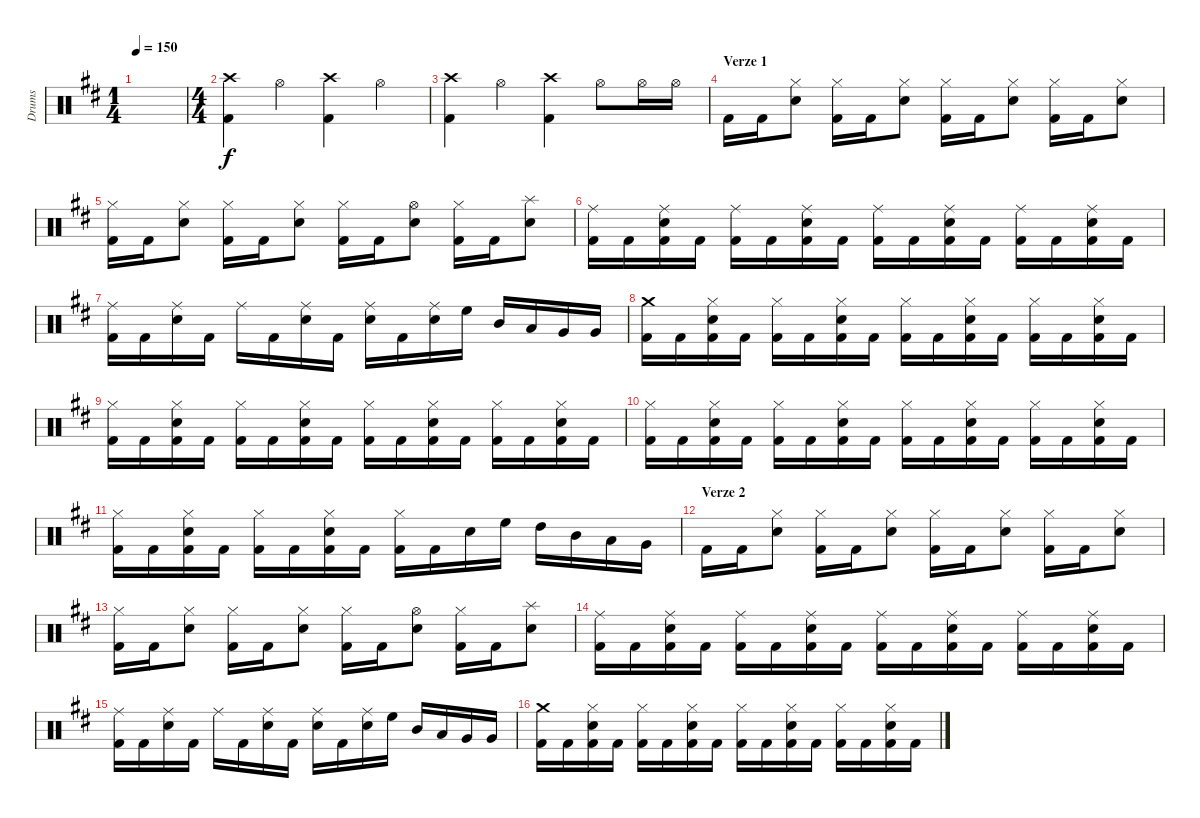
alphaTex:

\track ("Drums" "Drums") {instrument percussion}
\staff {score}
\articulation defaults
\ts (1 4)
\tempo 150
\clef neutral
\ks bminor
|
\ts (4 4)
\ks d
("Crash high (hit)" "Kick (hit) 2").4 "Hi-Hat (open)".4 ("Crash high (hit)" "Kick (hit) 2").4 "Hi-Hat (open)".4 |
("Crash high (hit)" "Kick (hit) 2").4 "Hi-Hat (open)".4 ("Crash high (hit)" "Kick (hit) 2").4 "Hi-Hat (open)".8 "Hi-Hat (open)".16 "Hi-Hat (open)".16 |
\section ("" "Verze 1")
"Kick (hit) 2".16 "Kick (hit) 2".16 ("Hi-Hat (closed)" "Snare (hit) 2").8 ("Hi-Hat (closed)" "Kick (hit) 2").16 "Kick (hit) 2".16 ("Hi-Hat (closed)" "Snare (hit) 2").8 ("Hi-Hat (closed)" "Kick (hit) 2").16 "Kick (hit) 2".16 ("Hi-Hat (closed)" "Snare (hit) 2").8 ("Hi-Hat (closed)" "Kick (hit) 2").16 "Kick (hit) 2".16 ("Hi-Hat (closed)" "Snare (hit) 2").8 |
("Hi-Hat (closed)" "Kick (hit) 2").16 "Kick (hit) 2".16 ("Hi-Hat (closed)" "Snare (hit) 2").8 ("Hi-Hat (closed)" "Kick (hit) 2").16 "Kick (hit) 2".16 ("Hi-Hat (closed)" "Snare (hit) 2").8 ("Hi-Hat (closed)" "Kick (hit) 2").16 "Kick (hit) 2".16 ("Hi-Hat (open)" "Snare (hit) 2").8 ("Hi-Hat (closed)" "Kick (hit) 2").16 "Kick (hit) 2".16 ("Splash (hit)" "Snare (hit) 2").8 |
("Ride (middle)" "Kick (hit) 2").16 "Kick (hit) 2".16 ("Ride (middle)" "Snare (hit) 2" "Kick (hit) 2").16 "Kick (hit) 2".16 ("Ride (middle)" "Kick (hit) 2").16 "Kick (hit) 2".16 ("Ride (middle)" "Snare (hit) 2" "Kick (hit) 2").16 "Kick (hit) 2".16 ("Ride (middle)" "Kick (hit) 2").16 "Kick (hit) 2".16 ("Ride (middle)" "Snare (hit) 2" "Kick (hit) 2").16 "Kick (hit) 2".16 ("Ride (middle)" "Kick (hit) 2").16 "Kick (hit) 2".16 ("Ride (middle)" "Snare (hit) 2" "Kick (hit) 2").16 "Kick (hit) 2".16 |
("Ride (middle)" "Kick (hit) 2").16 "Kick (hit) 2".16 ("Ride (middle)" "Snare (hit) 2").16 "Kick (hit) 2".16 "Ride (middle)".16 "Kick (hit) 2".16 ("Ride (middle)" "Snare (hit) 2").16 "Kick (hit) 2".16 ("Ride (middle)" "Snare (hit) 2").16 "Kick (hit) 2".16 ("Ride (middle)" "Snare (hit) 2").16 "High Floor Tom (hit)".16 "Mid Tom (hit)".16 "Low Tom (hit)".16 "Very Low Tom (hit)".16 "Very Low Tom (hit)".16 |
("Crash medium (hit)" "Kick (hit) 2").16 "Kick (hit) 2".16 ("Hi-Hat (closed)" "Snare (hit) 2" "Kick (hit) 2").16 "Kick (hit) 2".16 ("Hi-Hat (closed)" "Kick (hit) 2").16 "Kick (hit) 2".16 ("Hi-Hat (closed)" "Snare (hit) 2" "Kick (hit) 2").16 "Kick (hit) 2".16 ("Hi-Hat (closed)" "Kick (hit) 2").16 "Kick (hit) 2".16 ("Hi-Hat (closed)" "Snare (hit) 2" "Kick (hit) 2").16 "Kick (hit) 2".16 ("Hi-Hat (closed)" "Kick (hit) 2").16 "Kick (hit) 2".16 ("Hi-Hat (closed)" "Snare (hit) 2" "Kick (hit) 2").16 "Kick (hit) 2".16 |
("Hi-Hat (closed)" "Kick (hit) 2").16 "Kick (hit) 2".16 ("Hi-Hat (closed)" "Snare (hit) 2" "Kick (hit) 2").16 "Kick (hit) 2".16 ("Hi-Hat (closed)" "Kick (hit) 2").16 "Kick (hit) 2".16 ("Hi-Hat (closed)" "Snare (hit) 2" "Kick (hit) 2").16 "Kick (hit) 2".16 ("Hi-Hat (closed)" "Kick (hit) 2").16 "Kick (hit) 2".16 ("Hi-Hat (closed)" "Snare (hit) 2" "Kick (hit) 2").16 "Kick (hit) 2".16 ("Hi-Hat (closed)" "Kick (hit) 2").16 "Kick (hit) 2".16 ("Hi-Hat (closed)" "Snare (hit) 2" "Kick (hit) 2").16 "Kick (hit) 2".16 |
("Hi-Hat (closed)" "Kick (hit) 2").16 "Kick (hit) 2".16 ("Hi-Hat (closed)" "Snare (hit) 2" "Kick (hit) 2").16 "Kick (hit) 2".16 ("Hi-Hat (closed)" "Kick (hit) 2").16 "Kick (hit) 2".16 ("Hi-Hat (closed)" "Snare (hit) 2" "Kick (hit) 2").16 "Kick (hit) 2".16 ("Hi-Hat (closed)" "Kick (hit) 2").16 "Kick (hit) 2".16 ("Hi-Hat (closed)" "Snare (hit) 2" "Kick (hit) 2").16 "Kick (hit) 2".16 ("Hi-Hat (closed)" "Kick (hit) 2").16 "Kick (hit) 2".16 ("Hi-Hat (closed)" "Snare (hit) 2" "Kick (hit) 2").16 "Kick (hit) 2".16 |
("Hi-Hat (closed)" "Kick (hit) 2").16 "Kick (hit) 2".16 ("Hi-Hat (closed)" "Snare (hit) 2" "Kick (hit) 2").16 "Kick (hit) 2".16 ("Hi-Hat (closed)" "Kick (hit) 2").16 "Kick (hit) 2".16 ("Hi-Hat (closed)" "Snare (hit) 2" "Kick (hit) 2").16 "Kick (hit) 2".16 ("Hi-Hat (closed)" "Kick (hit) 2").16 "Kick (hit) 2".16 "Snare (hit) 2".16 "High Floor Tom (hit)".16 "High Tom (hit)".16 "Mid Tom (hit)".16 "Low Tom (hit)".16 "Very Low Tom (hit)".16 |
\section ("" "Verze 2")
"Kick (hit) 2".16 "Kick (hit) 2".16 ("Hi-Hat (closed)" "Snare (hit) 2").8 ("Hi-Hat (closed)" "Kick (hit) 2").16 "Kick (hit) 2".16 ("Hi-Hat (closed)" "Snare (hit) 2").8 ("Hi-Hat (closed)" "Kick (hit) 2").16 "Kick (hit) 2".16 ("Hi-Hat (closed)" "Snare (hit) 2").8 ("Hi-Hat (closed)" "Kick (hit) 2").16 "Kick (hit) 2".16 ("Hi-Hat (closed)" "Snare (hit) 2").8 |
("Hi-Hat (closed)" "Kick (hit) 2").16 "Kick (hit) 2".16 ("Hi-Hat (closed)" "Snare (hit) 2").8 ("Hi-Hat (closed)" "Kick (hit) 2").16 "Kick (hit) 2".16 ("Hi-Hat (closed)" "Snare (hit) 2").8 ("Hi-Hat (closed)" "Kick (hit) 2").16 "Kick (hit) 2".16 ("Hi-Hat (open)" "Snare (hit) 2").8 ("Hi-Hat (closed)" "Kick (hit) 2").16 "Kick (hit) 2".16 ("Splash (hit)" "Snare (hit) 2").8 |
("Ride (middle)" "Kick (hit) 2").16 "Kick (hit) 2".16 ("Ride (middle)" "Snare (hit) 2" "Kick (hit) 2").16 "Kick (hit) 2".16 ("Ride (middle)" "Kick (hit) 2").16 "Kick (hit) 2".16 ("Ride (middle)" "Snare (hit) 2" "Kick (hit) 2").16 "Kick (hit) 2".16 ("Ride (middle)" "Kick (hit) 2").16 "Kick (hit) 2".16 ("Ride (middle)" "Snare (hit) 2" "Kick (hit) 2").16 "Kick (hit) 2".16 ("Ride (middle)" "Kick (hit) 2").16 "Kick (hit) 2".16 ("Ride (middle)" "Snare (hit) 2" "Kick (hit) 2").16 "Kick (hit) 2".16 |
("Ride (middle)" "Kick (hit) 2").16 "Kick (hit) 2".16 ("Ride (middle)" "Snare (hit) 2").16 "Kick (hit) 2".16 "Ride (middle)".16 "Kick (hit) 2".16 ("Ride (middle)" "Snare (hit) 2").16 "Kick (hit) 2".16 ("Ride (middle)" "Snare (hit) 2").16 "Kick (hit) 2".16 ("Ride (middle)" "Snare (hit) 2").16 "High Floor Tom (hit)".16 "Mid Tom (hit)".16 "Low Tom (hit)".16 "Very Low Tom (hit)".16 "Very Low Tom (hit)".16 |
("Crash medium (hit)" "Kick (hit) 2").16 "Kick (hit) 2".16 ("Hi-Hat (closed)" "Snare (hit) 2" "Kick (hit) 2").16 "Kick (hit) 2".16 ("Hi-Hat (closed)" "Kick (hit) 2").16 "Kick (hit) 2".16 ("Hi-Hat (closed)" "Snare (hit) 2" "Kick (hit) 2").16 "Kick (hit) 2".16 ("Hi-Hat (closed)" "Kick (hit) 2").16 "Kick (hit) 2".16 ("Hi-Hat (closed)" "Snare (hit) 2" "Kick (hit) 2").16 "Kick (hit) 2".16 ("Hi-Hat (closed)" "Kick (hit) 2").16 "Kick (hit) 2".16 ("Hi-Hat (closed)" "Snare (hit) 2" "Kick (hit) 2").16 "Kick (hit) 2".16
